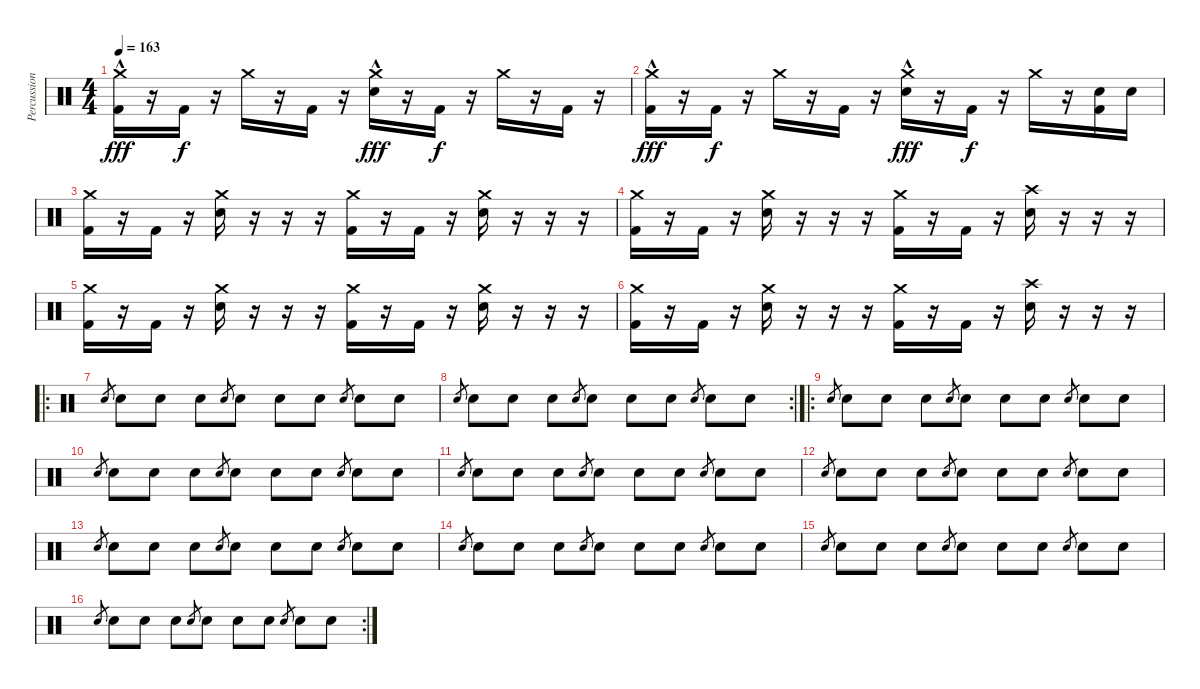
\track ("Percussion" "Percussion") {instrument percussion}
\staff {score}
\articulation defaults
\ts (4 4)
\tempo 163
\clef neutral
\ks c
("Crash medium (hit)"{hac} "Kick (hit) 2").16{dy fff} r.16 "Kick (hit) 2".16{dy f} r.16 "Crash medium (hit)".16 r.16 "Kick (hit) 2".16 r.16 ("Crash medium (hit)"{hac} "Snare (hit) 2").16{dy fff} r.16 "Kick (hit) 2".16{dy f} r.16 "Crash medium (hit)".16 r.16 "Kick (hit) 2".16 r.16 |
("Crash medium (hit)"{hac} "Kick (hit) 2").16{dy fff} r.16 "Kick (hit) 2".16{dy f} r.16 "Crash medium (hit)".16 r.16 "Kick (hit) 2".16 r.16 ("Crash medium (hit)"{hac} "Snare (hit) 2").16{dy fff} r.16 "Kick (hit) 2".16{dy f} r.16 "Crash medium (hit)".16 r.16 ("Snare (hit) 2" "Kick (hit) 2").16 "Snare (hit) 2".16 |
("Crash medium (hit)" "Kick (hit) 2").16 r.16 "Kick (hit) 2".16 r.16 ("Crash medium (hit)" "Snare (hit) 2").16 r.16 r.16 r.16 ("Crash medium (hit)" "Kick (hit) 2").16 r.16 "Kick (hit) 2".16 r.16 ("Crash medium (hit)" "Snare (hit) 2").16 r.16 r.16 r.16 |
("Crash medium (hit)" "Kick (hit) 2").16 r.16 "Kick (hit) 2".16 r.16 ("Crash medium (hit)" "Snare (hit) 2").16 r.16 r.16 r.16 ("Crash medium (hit)" "Kick (hit) 2").16 r.16 "Kick (hit) 2".16 r.16 ("Crash high (hit)" "Snare (hit) 2").16 r.16 r.16 r.16 |
("Crash medium (hit)" "Kick (hit) 2").16 r.16 "Kick (hit) 2".16 r.16 ("Crash medium (hit)" "Snare (hit) 2").16 r.16 r.16 r.16 ("Crash medium (hit)" "Kick (hit) 2").16 r.16 "Kick (hit) 2".16 r.16 ("Crash medium (hit)" "Snare (hit) 2").16 r.16 r.16 r.16 |
("Crash medium (hit)" "Kick (hit) 2").16 r.16 "Kick (hit) 2".16 r.16 ("Crash medium (hit)" "Snare (hit) 2").16 r.16 r.16 r.16 ("Crash medium (hit)" "Kick (hit) 2").16 r.16 "Kick (hit) 2".16 r.16 ("Crash high (hit)" "Snare (hit) 2").16 r.16 r.16 r.16 |
\ro "Snare (hit) 2".8{gr} "Snare (hit) 2".8 "Snare (hit) 2".8 "Snare (hit) 2".8 "Snare (hit) 2".8{gr} "Snare (hit) 2".8 "Snare (hit) 2".8 "Snare (hit) 2".8 "Snare (hit) 2".8{gr} "Snare (hit) 2".8 "Snare (hit) 2".8
|
\rc 2 "Snare (hit) 2".8{gr} "Snare (hit) 2".8 "Snare (hit) 2".8 "Snare (hit) 2".8 "Snare (hit) 2".8{gr} "Snare (hit) 2".8 "Snare (hit) 2".8 "Snare (hit) 2".8 "Snare (hit) 2".8{gr} "Snare (hit) 2".8 "Snare (hit) 2".8
|
\ro "Snare (hit) 2".8{gr} "Snare (hit) 2".8 "Snare (hit) 2".8 "Snare (hit) 2".8 "Snare (hit) 2".8{gr} "Snare (hit) 2".8 "Snare (hit) 2".8 "Snare (hit) 2".8 "Snare (hit) 2".8{gr} "Snare (hit) 2".8 "Snare (hit) 2".8
|
"Snare (hit) 2".8{gr} "Snare (hit) 2".8 "Snare (hit) 2".8 "Snare (hit) 2".8 "Snare (hit) 2".8{gr} "Snare (hit) 2".8 "Snare (hit) 2".8 "Snare (hit) 2".8 "Snare (hit) 2".8{gr} "Snare (hit) 2".8 "Snare (hit) 2".8 |
"Snare (hit) 2".8{gr} "Snare (hit) 2".8 "Snare (hit) 2".8 "Snare (hit) 2".8 "Snare (hit) 2".8{gr} "Snare (hit) 2".8 "Snare (hit) 2".8 "Snare (hit) 2".8 "Snare (hit) 2".8{gr} "Snare (hit) 2".8 "Snare (hit) 2".8 |
"Snare (hit) 2".8{gr} "Snare (hit) 2".8 "Snare (hit) 2".8 "Snare (hit) 2".8 "Snare (hit) 2".8{gr} "Snare (hit) 2".8 "Snare (hit) 2".8 "Snare (hit) 2".8 "Snare (hit) 2".8{gr} "Snare (hit) 2".8 "Snare (hit) 2".8 |
"Snare (hit) 2".8{gr} "Snare (hit) 2".8 "Snare (hit) 2".8 "Snare (hit) 2".8 "Snare (hit) 2".8{gr} "Snare (hit) 2".8 "Snare (hit) 2".8 "Snare (hit) 2".8 "Snare (hit) 2".8{gr} "Snare (hit) 2".8 "Snare (hit) 2".8 |
"Snare (hit) 2".8{gr} "Snare (hit) 2".8 "Snare (hit) 2".8 "Snare (hit) 2".8 "Snare (hit) 2".8{gr} "Snare (hit) 2".8 "Snare (hit) 2".8 "Snare (hit) 2".8 "Snare (hit) 2".8{gr} "Snare (hit) 2".8 "Snare (hit) 2".8 |
"Snare (hit) 2".8{gr} "Snare (hit) 2".8 "Snare (hit) 2".8 "Snare (hit) 2".8 "Snare (hit) 2".8{gr} "Snare (hit) 2".8 "Snare (hit) 2".8 "Snare (hit) 2".8 "Snare (hit) 2".8{gr} "Snare (hit) 2".8 "Snare (hit) 2".8 |
\rc 2 "Snare (hit) 2".8{gr} "Snare (hit) 2".8 "Snare (hit) 2".8 "Snare (hit) 2".8 "Snare (hit) 2".8{gr} "Snare (hit) 2".8 "Snare (hit) 2".8 "Snare (hit) 2".8 "Snare (hit) 2".8{gr} "Snare (hit) 2".8 "Snare (hit) 2".8
